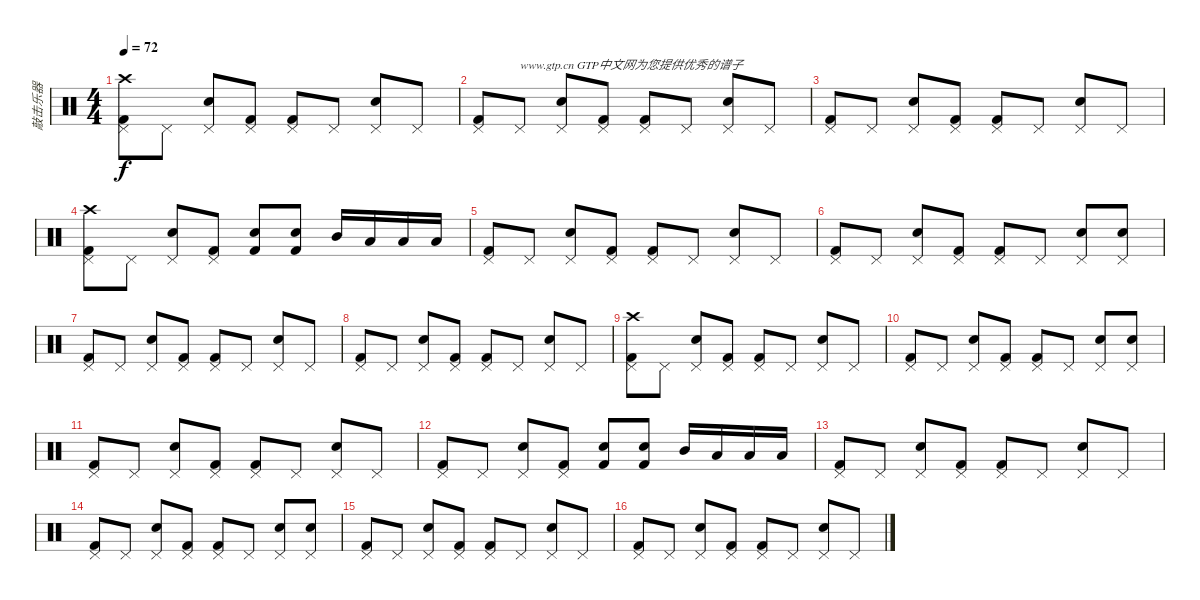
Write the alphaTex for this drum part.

\track ("敲击乐器" "敲击乐器") {instrument percussion}
\staff {score}
\articulation defaults
\ts (4 4)
\tempo 72
\clef neutral
\ks c
("Crash high (hit)" "Pedal Hi-Hat (hit)" "Kick (hit) 2").8{dy f} "Pedal Hi-Hat (hit)".8 ("Pedal Hi-Hat (hit)" "Snare (hit) 2").8 ("Pedal Hi-Hat (hit)" "Kick (hit) 2").8 ("Pedal Hi-Hat (hit)" "Kick (hit) 2").8 "Pedal Hi-Hat (hit)".8 ("Pedal Hi-Hat (hit)" "Snare (hit) 2").8 "Pedal Hi-Hat (hit)".8 |
("Pedal Hi-Hat (hit)" "Kick (hit) 2").8 "Pedal Hi-Hat (hit)".8{txt "www.gtp.cn GTP中文网为您提供优秀的谱子"} ("Pedal Hi-Hat (hit)" "Snare (hit) 2").8 ("Pedal Hi-Hat (hit)" "Kick (hit) 2").8 ("Pedal Hi-Hat (hit)" "Kick (hit) 2").8 "Pedal Hi-Hat (hit)".8 ("Pedal Hi-Hat (hit)" "Snare (hit) 2").8 "Pedal Hi-Hat (hit)".8 |
("Pedal Hi-Hat (hit)" "Kick (hit) 2").8 "Pedal Hi-Hat (hit)".8 ("Pedal Hi-Hat (hit)" "Snare (hit) 2").8 ("Pedal Hi-Hat (hit)" "Kick (hit) 2").8 ("Pedal Hi-Hat (hit)" "Kick (hit) 2").8 "Pedal Hi-Hat (hit)".8 ("Pedal Hi-Hat (hit)" "Snare (hit) 2").8 "Pedal Hi-Hat (hit)".8 |
("Crash high (hit)" "Pedal Hi-Hat (hit)" "Kick (hit) 2").8 "Pedal Hi-Hat (hit)".8 ("Pedal Hi-Hat (hit)" "Snare (hit) 2").8 ("Pedal Hi-Hat (hit)" "Kick (hit) 2").8 ("Snare (hit) 2" "Kick (hit) 2").8 ("Snare (hit) 2" "Kick (hit) 2").8 "Mid Tom (hit)".16 "Low Tom (hit)".16 "Low Floor Tom (hit)".16 "Low Floor Tom (hit)".16 |
("Pedal Hi-Hat (hit)" "Kick (hit) 2").8 "Pedal Hi-Hat (hit)".8 ("Pedal Hi-Hat (hit)" "Snare (hit) 2").8 ("Pedal Hi-Hat (hit)" "Kick (hit) 2").8 ("Pedal Hi-Hat (hit)" "Kick (hit) 2").8 "Pedal Hi-Hat (hit)".8 ("Pedal Hi-Hat (hit)" "Snare (hit) 2").8 "Pedal Hi-Hat (hit)".8 |
("Pedal Hi-Hat (hit)" "Kick (hit) 2").8 "Pedal Hi-Hat (hit)".8 ("Pedal Hi-Hat (hit)" "Snare (hit) 2").8 ("Pedal Hi-Hat (hit)" "Kick (hit) 2").8 ("Pedal Hi-Hat (hit)" "Kick (hit) 2").8 "Pedal Hi-Hat (hit)".8 ("Pedal Hi-Hat (hit)" "Snare (hit) 2").8 ("Pedal Hi-Hat (hit)" "Snare (hit) 2").8 |
("Pedal Hi-Hat (hit)" "Kick (hit) 2").8 "Pedal Hi-Hat (hit)".8 ("Pedal Hi-Hat (hit)" "Snare (hit) 2").8 ("Pedal Hi-Hat (hit)" "Kick (hit) 2").8 ("Pedal Hi-Hat (hit)" "Kick (hit) 2").8 "Pedal Hi-Hat (hit)".8 ("Pedal Hi-Hat (hit)" "Snare (hit) 2").8 "Pedal Hi-Hat (hit)".8 |
("Pedal Hi-Hat (hit)" "Kick (hit) 2").8 "Pedal Hi-Hat (hit)".8 ("Pedal Hi-Hat (hit)" "Snare (hit) 2").8 ("Pedal Hi-Hat (hit)" "Kick (hit) 2").8 ("Pedal Hi-Hat (hit)" "Kick (hit) 2").8 "Pedal Hi-Hat (hit)".8 ("Pedal Hi-Hat (hit)" "Snare (hit) 2").8 "Pedal Hi-Hat (hit)".8 |
("Crash high (hit)" "Pedal Hi-Hat (hit)" "Kick (hit) 2").8 "Pedal Hi-Hat (hit)".8 ("Pedal Hi-Hat (hit)" "Snare (hit) 2").8 ("Pedal Hi-Hat (hit)" "Kick (hit) 2").8 ("Pedal Hi-Hat (hit)" "Kick (hit) 2").8 "Pedal Hi-Hat (hit)".8 ("Pedal Hi-Hat (hit)" "Snare (hit) 2").8 "Pedal Hi-Hat (hit)".8 |
("Pedal Hi-Hat (hit)" "Kick (hit) 2").8 "Pedal Hi-Hat (hit)".8 ("Pedal Hi-Hat (hit)" "Snare (hit) 2").8 ("Pedal Hi-Hat (hit)" "Kick (hit) 2").8 ("Pedal Hi-Hat (hit)" "Kick (hit) 2").8 "Pedal Hi-Hat (hit)".8 ("Pedal Hi-Hat (hit)" "Snare (hit) 2").8 ("Pedal Hi-Hat (hit)" "Snare (hit) 2").8 |
("Pedal Hi-Hat (hit)" "Kick (hit) 2").8 "Pedal Hi-Hat (hit)".8 ("Pedal Hi-Hat (hit)" "Snare (hit) 2").8 ("Pedal Hi-Hat (hit)" "Kick (hit) 2").8 ("Pedal Hi-Hat (hit)" "Kick (hit) 2").8 "Pedal Hi-Hat (hit)".8 ("Pedal Hi-Hat (hit)" "Snare (hit) 2").8 "Pedal Hi-Hat (hit)".8 |
("Pedal Hi-Hat (hit)" "Kick (hit) 2").8 "Pedal Hi-Hat (hit)".8 ("Pedal Hi-Hat (hit)" "Snare (hit) 2").8 ("Pedal Hi-Hat (hit)" "Kick (hit) 2").8 ("Snare (hit) 2" "Kick (hit) 2").8 ("Snare (hit) 2" "Kick (hit) 2").8 "Mid Tom (hit)".16 "Low Tom (hit)".16 "Low Floor Tom (hit)".16 "Low Floor Tom (hit)".16 |
("Pedal Hi-Hat (hit)" "Kick (hit) 2").8 "Pedal Hi-Hat (hit)".8 ("Pedal Hi-Hat (hit)" "Snare (hit) 2").8 ("Pedal Hi-Hat (hit)" "Kick (hit) 2").8 ("Pedal Hi-Hat (hit)" "Kick (hit) 2").8 "Pedal Hi-Hat (hit)".8 ("Pedal Hi-Hat (hit)" "Snare (hit) 2").8 "Pedal Hi-Hat (hit)".8 |
("Pedal Hi-Hat (hit)" "Kick (hit) 2").8 "Pedal Hi-Hat (hit)".8 ("Pedal Hi-Hat (hit)" "Snare (hit) 2").8 ("Pedal Hi-Hat (hit)" "Kick (hit) 2").8 ("Pedal Hi-Hat (hit)" "Kick (hit) 2").8 "Pedal Hi-Hat (hit)".8 ("Pedal Hi-Hat (hit)" "Snare (hit) 2").8 ("Pedal Hi-Hat (hit)" "Snare (hit) 2").8 |
("Pedal Hi-Hat (hit)" "Kick (hit) 2").8 "Pedal Hi-Hat (hit)".8 ("Pedal Hi-Hat (hit)" "Snare (hit) 2").8 ("Pedal Hi-Hat (hit)" "Kick (hit) 2").8 ("Pedal Hi-Hat (hit)" "Kick (hit) 2").8 "Pedal Hi-Hat (hit)".8 ("Pedal Hi-Hat (hit)" "Snare (hit) 2").8 "Pedal Hi-Hat (hit)".8 |
("Pedal Hi-Hat (hit)" "Kick (hit) 2").8 "Pedal Hi-Hat (hit)".8 ("Pedal Hi-Hat (hit)" "Snare (hit) 2").8 ("Pedal Hi-Hat (hit)" "Kick (hit) 2").8 ("Pedal Hi-Hat (hit)" "Kick (hit) 2").8 "Pedal Hi-Hat (hit)".8 ("Pedal Hi-Hat (hit)" "Snare (hit) 2").8 "Pedal Hi-Hat (hit)".8
